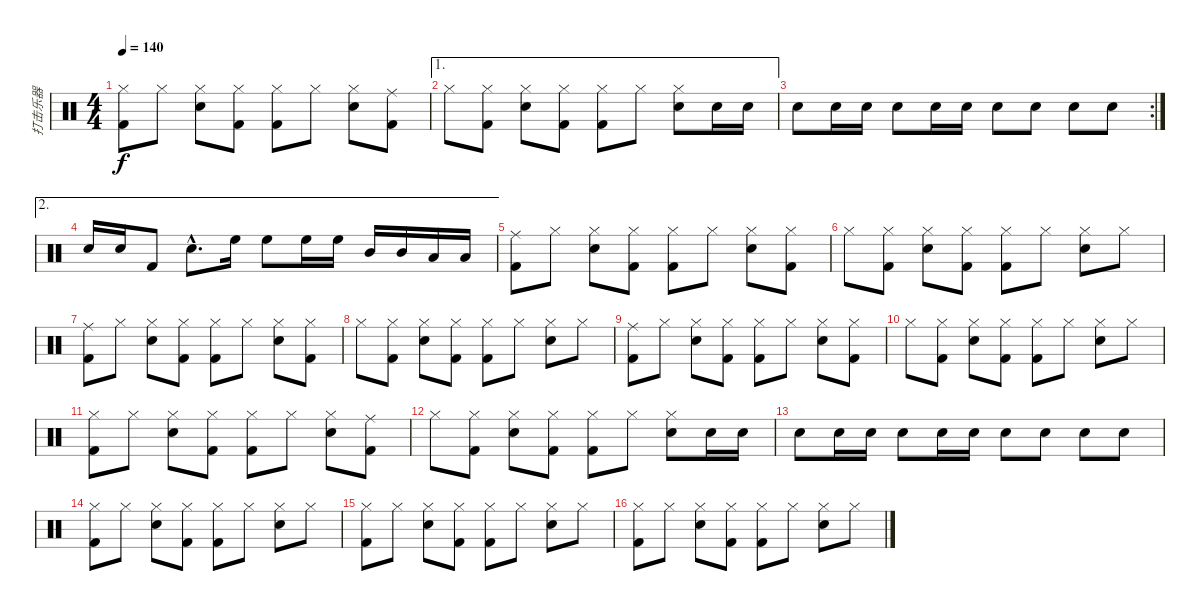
\track ("打击乐器" "打击乐器") {instrument percussion}
\staff {score}
\articulation defaults
\ts (4 4)
\tempo 140
\clef neutral
\ks c
("Hi-Hat (closed)" "Kick (hit) 2").8{dy f} "Hi-Hat (closed)".8 ("Hi-Hat (closed)" "Snare (hit) 2").8 ("Hi-Hat (closed)" "Kick (hit) 2").8 ("Hi-Hat (closed)" "Kick (hit) 2").8 "Hi-Hat (closed)".8 ("Hi-Hat (closed)" "Snare (hit) 2").8 ("Ride (middle)" "Kick (hit) 2").8 |
\ae 1 "Hi-Hat (closed)".8
("Hi-Hat (closed)" "Kick (hit) 2").8 ("Hi-Hat (closed)" "Snare (hit) 2").8 ("Hi-Hat (closed)" "Kick (hit) 2").8 ("Hi-Hat (closed)" "Kick (hit) 2").8 "Hi-Hat (closed)".8 ("Hi-Hat (closed)" "Snare (hit) 2").8 "Snare (hit) 2".16 "Snare (hit) 2".16 |
\rc 2 "Snare (hit) 2".8 "Snare (hit) 2".16 "Snare (hit) 2".16 "Snare (hit) 2".8 "Snare (hit) 2".16 "Snare (hit) 2".16 "Snare (hit) 2".8 "Snare (hit) 2".8 "Snare (hit) 2".8 "Snare (hit) 2".8
|
\ae 2 "Snare (hit) 2".16 "Snare (hit) 2".16 "Kick (hit) 2".8 "Snare (hit) 2"{hac}.8{d} "High Floor Tom (hit)".16 "High Floor Tom (hit)".8 "High Floor Tom (hit)".16 "High Floor Tom (hit)".16 "Mid Tom (hit)".16 "Mid Tom (hit)".16 "Low Tom (hit)".16 "Low Tom (hit)".16
|
("Ride (middle)" "Kick (hit) 2").8 "Hi-Hat (closed)".8 ("Hi-Hat (closed)" "Snare (hit) 2").8 ("Hi-Hat (closed)" "Kick (hit) 2").8 ("Hi-Hat (closed)" "Kick (hit) 2").8 "Hi-Hat (closed)".8 ("Hi-Hat (closed)" "Snare (hit) 2").8 ("Hi-Hat (closed)" "Kick (hit) 2").8 |
"Hi-Hat (closed)".8 ("Hi-Hat (closed)" "Kick (hit) 2").8 ("Hi-Hat (closed)" "Snare (hit) 2").8 ("Hi-Hat (closed)" "Kick (hit) 2").8 ("Hi-Hat (closed)" "Kick (hit) 2").8 "Hi-Hat (closed)".8 ("Hi-Hat (closed)" "Snare (hit) 2").8 "Hi-Hat (closed)".8 |
("Ride (middle)" "Kick (hit) 2").8 "Hi-Hat (closed)".8 ("Hi-Hat (closed)" "Snare (hit) 2").8 ("Hi-Hat (closed)" "Kick (hit) 2").8 ("Hi-Hat (closed)" "Kick (hit) 2").8 "Hi-Hat (closed)".8 ("Hi-Hat (closed)" "Snare (hit) 2").8 ("Hi-Hat (closed)" "Kick (hit) 2").8 |
"Hi-Hat (closed)".8 ("Hi-Hat (closed)" "Kick (hit) 2").8 ("Hi-Hat (closed)" "Snare (hit) 2").8 ("Hi-Hat (closed)" "Kick (hit) 2").8 ("Hi-Hat (closed)" "Kick (hit) 2").8 "Hi-Hat (closed)".8 ("Hi-Hat (closed)" "Snare (hit) 2").8 "Hi-Hat (closed)".8 |
("Ride (middle)" "Kick (hit) 2").8 "Hi-Hat (closed)".8 ("Hi-Hat (closed)" "Snare (hit) 2").8 ("Hi-Hat (closed)" "Kick (hit) 2").8 ("Hi-Hat (closed)" "Kick (hit) 2").8 "Hi-Hat (closed)".8 ("Hi-Hat (closed)" "Snare (hit) 2").8 ("Hi-Hat (closed)" "Kick (hit) 2").8 |
"Hi-Hat (closed)".8 ("Hi-Hat (closed)" "Kick (hit) 2").8 ("Hi-Hat (closed)" "Snare (hit) 2").8 ("Hi-Hat (closed)" "Kick (hit) 2").8 ("Hi-Hat (closed)" "Kick (hit) 2").8 "Hi-Hat (closed)".8 ("Hi-Hat (closed)" "Snare (hit) 2").8 "Hi-Hat (closed)".8 |
("Hi-Hat (closed)" "Kick (hit) 2").8 "Hi-Hat (closed)".8 ("Hi-Hat (closed)" "Snare (hit) 2").8 ("Hi-Hat (closed)" "Kick (hit) 2").8 ("Hi-Hat (closed)" "Kick (hit) 2").8 "Hi-Hat (closed)".8 ("Hi-Hat (closed)" "Snare (hit) 2").8 ("Ride (middle)" "Kick (hit) 2").8 |
"Hi-Hat (closed)".8 ("Hi-Hat (closed)" "Kick (hit) 2").8 ("Hi-Hat (closed)" "Snare (hit) 2").8 ("Hi-Hat (closed)" "Kick (hit) 2").8 ("Hi-Hat (closed)" "Kick (hit) 2").8 "Hi-Hat (closed)".8 ("Hi-Hat (closed)" "Snare (hit) 2").8 "Snare (hit) 2".16 "Snare (hit) 2".16 |
"Snare (hit) 2".8 "Snare (hit) 2".16 "Snare (hit) 2".16 "Snare (hit) 2".8 "Snare (hit) 2".16 "Snare (hit) 2".16 "Snare (hit) 2".8 "Snare (hit) 2".8 "Snare (hit) 2".8 "Snare (hit) 2".8 |
("Hi-Hat (closed)" "Kick (hit) 2").8 "Hi-Hat (closed)".8 ("Hi-Hat (closed)" "Snare (hit) 2").8 ("Hi-Hat (closed)" "Kick (hit) 2").8 ("Hi-Hat (closed)" "Kick (hit) 2").8 "Hi-Hat (closed)".8 ("Hi-Hat (closed)" "Snare (hit) 2").8 "Hi-Hat (closed)".8 |
("Hi-Hat (closed)" "Kick (hit) 2").8 "Hi-Hat (closed)".8 ("Hi-Hat (closed)" "Snare (hit) 2").8 ("Hi-Hat (closed)" "Kick (hit) 2").8 ("Hi-Hat (closed)" "Kick (hit) 2").8 "Hi-Hat (closed)".8 ("Hi-Hat (closed)" "Snare (hit) 2").8 "Hi-Hat (closed)".8 |
("Hi-Hat (closed)" "Kick (hit) 2").8 "Hi-Hat (closed)".8 ("Hi-Hat (closed)" "Snare (hit) 2").8 ("Hi-Hat (closed)" "Kick (hit) 2").8 ("Hi-Hat (closed)" "Kick (hit) 2").8 "Hi-Hat (closed)".8 ("Hi-Hat (closed)" "Snare (hit) 2").8 "Hi-Hat (closed)".8
